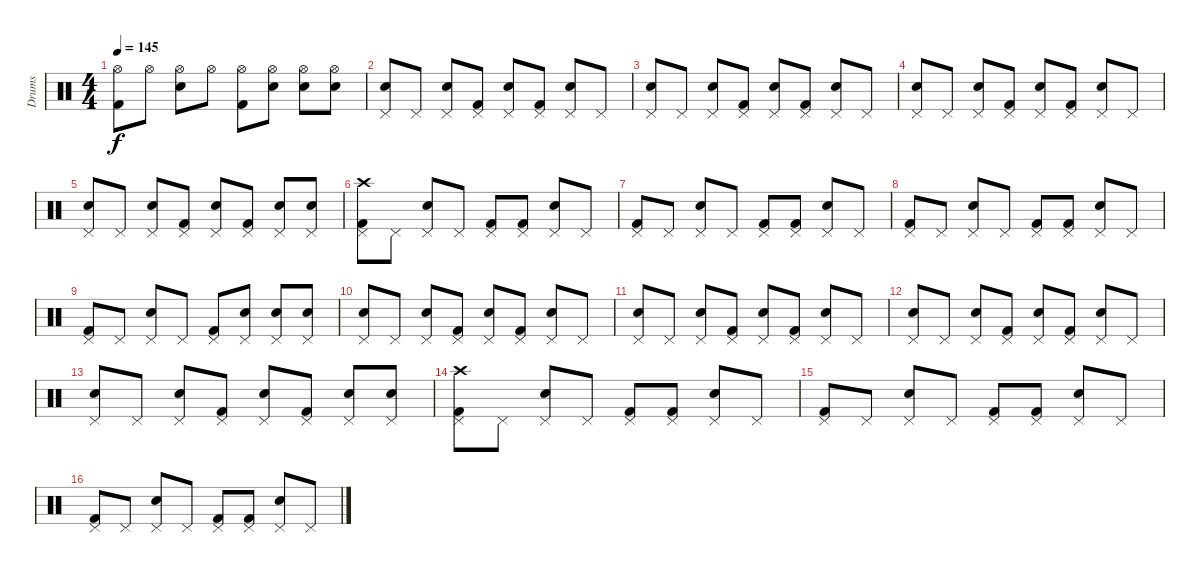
\track ("Drums" "Drums") {instrument percussion}
\staff {score}
\articulation defaults
\ts (4 4)
\tempo 145
\clef neutral
\ks c
("Kick (hit) 2" "Hi-Hat (open)").8{dy f} "Hi-Hat (open)".8 ("Snare (hit) 2" "Hi-Hat (open)").8 "Hi-Hat (open)".8 ("Kick (hit) 2" "Hi-Hat (open)").8 ("Snare (hit) 2" "Hi-Hat (open)").8 ("Snare (hit) 2" "Hi-Hat (open)").8 ("Snare (hit) 2" "Hi-Hat (open)").8 |
("Snare (hit) 2" "Pedal Hi-Hat (hit)").8 "Pedal Hi-Hat (hit)".8 ("Snare (hit) 2" "Pedal Hi-Hat (hit)").8 ("Kick (hit) 2" "Pedal Hi-Hat (hit)").8 ("Snare (hit) 2" "Pedal Hi-Hat (hit)").8 ("Kick (hit) 2" "Pedal Hi-Hat (hit)").8 ("Snare (hit) 2" "Pedal Hi-Hat (hit)").8 "Pedal Hi-Hat (hit)".8 |
("Snare (hit) 2" "Pedal Hi-Hat (hit)").8 "Pedal Hi-Hat (hit)".8 ("Snare (hit) 2" "Pedal Hi-Hat (hit)").8 ("Kick (hit) 2" "Pedal Hi-Hat (hit)").8 ("Snare (hit) 2" "Pedal Hi-Hat (hit)").8 ("Kick (hit) 2" "Pedal Hi-Hat (hit)").8 ("Snare (hit) 2" "Pedal Hi-Hat (hit)").8 "Pedal Hi-Hat (hit)".8 |
("Snare (hit) 2" "Pedal Hi-Hat (hit)").8 "Pedal Hi-Hat (hit)".8 ("Snare (hit) 2" "Pedal Hi-Hat (hit)").8 ("Kick (hit) 2" "Pedal Hi-Hat (hit)").8 ("Snare (hit) 2" "Pedal Hi-Hat (hit)").8 ("Kick (hit) 2" "Pedal Hi-Hat (hit)").8 ("Snare (hit) 2" "Pedal Hi-Hat (hit)").8 "Pedal Hi-Hat (hit)".8 |
("Snare (hit) 2" "Pedal Hi-Hat (hit)").8 "Pedal Hi-Hat (hit)".8 ("Snare (hit) 2" "Pedal Hi-Hat (hit)").8 ("Kick (hit) 2" "Pedal Hi-Hat (hit)").8 ("Snare (hit) 2" "Pedal Hi-Hat (hit)").8 ("Kick (hit) 2" "Pedal Hi-Hat (hit)").8 ("Snare (hit) 2" "Pedal Hi-Hat (hit)").8 ("Snare (hit) 2" "Pedal Hi-Hat (hit)").8 |
("Kick (hit) 2" "Crash high (hit)" "Pedal Hi-Hat (hit)").8 "Pedal Hi-Hat (hit)".8 ("Snare (hit) 2" "Pedal Hi-Hat (hit)").8 "Pedal Hi-Hat (hit)".8 ("Kick (hit) 2" "Pedal Hi-Hat (hit)").8 ("Kick (hit) 2" "Pedal Hi-Hat (hit)").8 ("Snare (hit) 2" "Pedal Hi-Hat (hit)").8 "Pedal Hi-Hat (hit)".8 |
("Kick (hit) 2" "Pedal Hi-Hat (hit)").8 "Pedal Hi-Hat (hit)".8 ("Snare (hit) 2" "Pedal Hi-Hat (hit)").8 "Pedal Hi-Hat (hit)".8 ("Kick (hit) 2" "Pedal Hi-Hat (hit)").8 ("Kick (hit) 2" "Pedal Hi-Hat (hit)").8 ("Snare (hit) 2" "Pedal Hi-Hat (hit)").8 "Pedal Hi-Hat (hit)".8 |
("Kick (hit) 2" "Pedal Hi-Hat (hit)").8 "Pedal Hi-Hat (hit)".8 ("Snare (hit) 2" "Pedal Hi-Hat (hit)").8 "Pedal Hi-Hat (hit)".8 ("Kick (hit) 2" "Pedal Hi-Hat (hit)").8 ("Kick (hit) 2" "Pedal Hi-Hat (hit)").8 ("Snare (hit) 2" "Pedal Hi-Hat (hit)").8 "Pedal Hi-Hat (hit)".8 |
("Kick (hit) 2" "Pedal Hi-Hat (hit)").8 "Pedal Hi-Hat (hit)".8 ("Snare (hit) 2" "Pedal Hi-Hat (hit)").8 "Pedal Hi-Hat (hit)".8 ("Kick (hit) 2" "Pedal Hi-Hat (hit)").8 ("Snare (hit) 2" "Pedal Hi-Hat (hit)").8 ("Snare (hit) 2" "Pedal Hi-Hat (hit)").8 ("Snare (hit) 2" "Pedal Hi-Hat (hit)").8 |
("Snare (hit) 2" "Pedal Hi-Hat (hit)").8 "Pedal Hi-Hat (hit)".8 ("Snare (hit) 2" "Pedal Hi-Hat (hit)").8 ("Kick (hit) 2" "Pedal Hi-Hat (hit)").8 ("Snare (hit) 2" "Pedal Hi-Hat (hit)").8 ("Kick (hit) 2" "Pedal Hi-Hat (hit)").8 ("Snare (hit) 2" "Pedal Hi-Hat (hit)").8 "Pedal Hi-Hat (hit)".8 |
("Snare (hit) 2" "Pedal Hi-Hat (hit)").8 "Pedal Hi-Hat (hit)".8 ("Snare (hit) 2" "Pedal Hi-Hat (hit)").8 ("Kick (hit) 2" "Pedal Hi-Hat (hit)").8 ("Snare (hit) 2" "Pedal Hi-Hat (hit)").8 ("Kick (hit) 2" "Pedal Hi-Hat (hit)").8 ("Snare (hit) 2" "Pedal Hi-Hat (hit)").8 "Pedal Hi-Hat (hit)".8 |
("Snare (hit) 2" "Pedal Hi-Hat (hit)").8 "Pedal Hi-Hat (hit)".8 ("Snare (hit) 2" "Pedal Hi-Hat (hit)").8 ("Kick (hit) 2" "Pedal Hi-Hat (hit)").8 ("Snare (hit) 2" "Pedal Hi-Hat (hit)").8 ("Kick (hit) 2" "Pedal Hi-Hat (hit)").8 ("Snare (hit) 2" "Pedal Hi-Hat (hit)").8 "Pedal Hi-Hat (hit)".8 |
("Snare (hit) 2" "Pedal Hi-Hat (hit)").8 "Pedal Hi-Hat (hit)".8 ("Snare (hit) 2" "Pedal Hi-Hat (hit)").8 ("Kick (hit) 2" "Pedal Hi-Hat (hit)").8 ("Snare (hit) 2" "Pedal Hi-Hat (hit)").8 ("Kick (hit) 2" "Pedal Hi-Hat (hit)").8 ("Snare (hit) 2" "Pedal Hi-Hat (hit)").8 ("Snare (hit) 2" "Pedal Hi-Hat (hit)").8 |
("Kick (hit) 2" "Crash high (hit)" "Pedal Hi-Hat (hit)").8 "Pedal Hi-Hat (hit)".8 ("Snare (hit) 2" "Pedal Hi-Hat (hit)").8 "Pedal Hi-Hat (hit)".8 ("Kick (hit) 2" "Pedal Hi-Hat (hit)").8 ("Kick (hit) 2" "Pedal Hi-Hat (hit)").8 ("Snare (hit) 2" "Pedal Hi-Hat (hit)").8 "Pedal Hi-Hat (hit)".8 |
("Kick (hit) 2" "Pedal Hi-Hat (hit)").8 "Pedal Hi-Hat (hit)".8 ("Snare (hit) 2" "Pedal Hi-Hat (hit)").8 "Pedal Hi-Hat (hit)".8 ("Kick (hit) 2" "Pedal Hi-Hat (hit)").8 ("Kick (hit) 2" "Pedal Hi-Hat (hit)").8 ("Snare (hit) 2" "Pedal Hi-Hat (hit)").8 "Pedal Hi-Hat (hit)".8 |
("Kick (hit) 2" "Pedal Hi-Hat (hit)").8 "Pedal Hi-Hat (hit)".8 ("Snare (hit) 2" "Pedal Hi-Hat (hit)").8 "Pedal Hi-Hat (hit)".8 ("Kick (hit) 2" "Pedal Hi-Hat (hit)").8 ("Kick (hit) 2" "Pedal Hi-Hat (hit)").8 ("Snare (hit) 2" "Pedal Hi-Hat (hit)").8 "Pedal Hi-Hat (hit)".8
